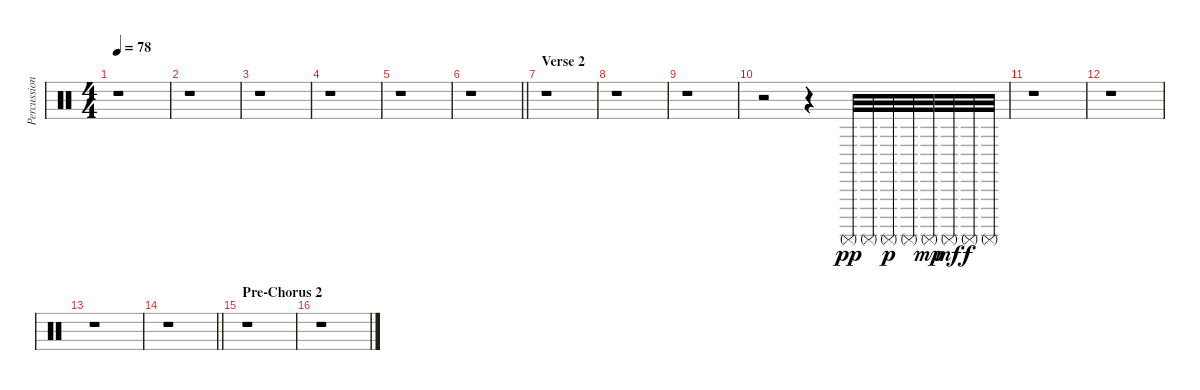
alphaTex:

\track ("Percussion" "Percussion") {instrument percussion}
\staff {score}
\articulation defaults
\ts (4 4)
\tempo 78
\clef neutral
\ks c
r.1{dy f} |
r.1 |
r.1 |
r.1 |
r.1 |
\barLineRight lightlight
r.1 |
\section ("" "Verse 2")
r.1 |
r.1 |
r.1 |
r.2 r.4 "Surdo (mute)".32{dy pp} "Surdo (mute)".32 "Surdo (mute)".32{dy p} "Surdo (mute)".32 "Surdo (mute)".32{dy mp} "Surdo (mute)".32{dy mf} "Surdo (mute)".32{dy f} "Surdo (mute)".32 |
r.1 |
r.1 |
r.1 |
\barLineRight lightlight
r.1 |
\section ("" "Pre-Chorus 2")
r.1 |
r.1
